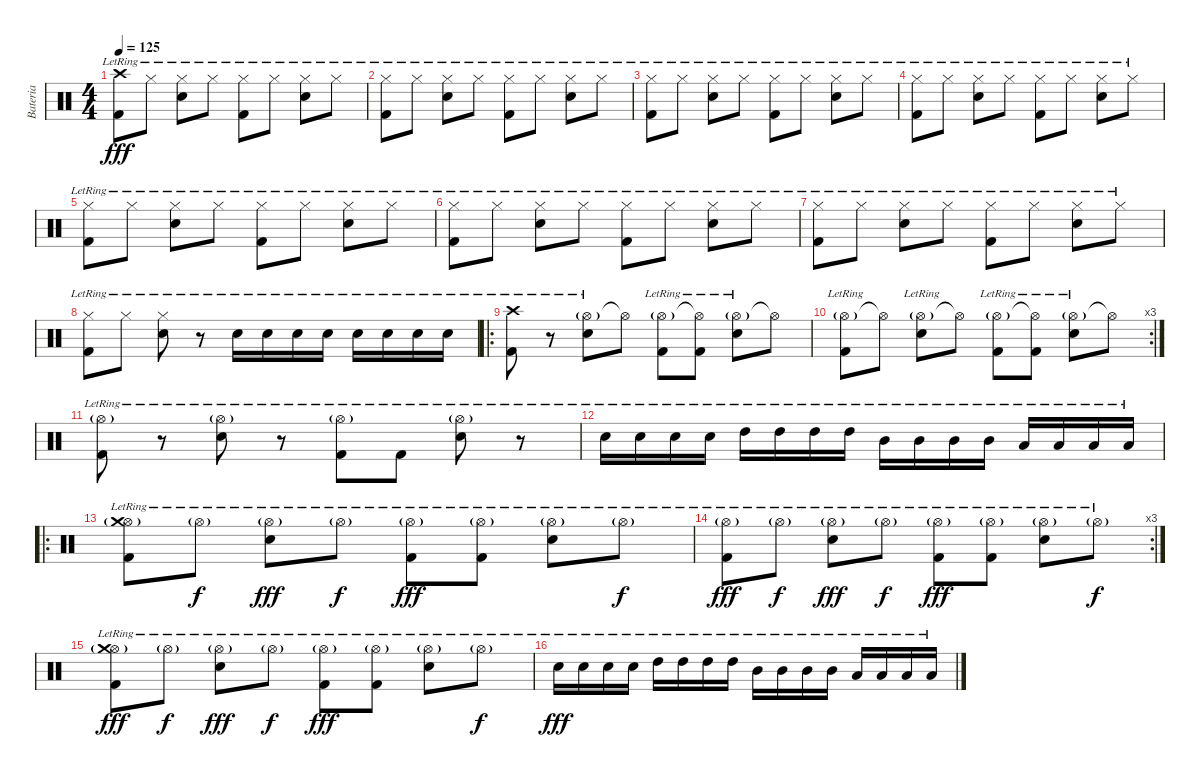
\track ("Bateria" "Bateria") {instrument percussion}
\staff {score}
\articulation defaults
\ts (4 4)
\tempo 125
\clef neutral
\ks c
("Kick (hit) 2"{lr} "Crash high (hit)"{lr}).8{dy fff} "Hi-Hat (closed)"{lr}.8 ("Snare (hit) 2"{lr} "Hi-Hat (closed)"{lr}).8 "Hi-Hat (closed)"{lr}.8 ("Kick (hit) 2"{lr} "Hi-Hat (closed)"{lr}).8 "Hi-Hat (closed)"{lr}.8 ("Snare (hit) 2"{lr} "Hi-Hat (closed)"{lr}).8 "Hi-Hat (closed)"{lr}.8 |
("Kick (hit) 2"{lr} "Hi-Hat (closed)"{lr}).8 "Hi-Hat (closed)"{lr}.8 ("Snare (hit) 2"{lr} "Hi-Hat (closed)"{lr}).8 "Hi-Hat (closed)"{lr}.8 ("Kick (hit) 2"{lr} "Hi-Hat (closed)"{lr}).8 "Hi-Hat (closed)"{lr}.8 ("Snare (hit) 2"{lr} "Hi-Hat (closed)"{lr}).8 "Hi-Hat (closed)"{lr}.8 |
("Kick (hit) 2"{lr} "Hi-Hat (closed)"{lr}).8 "Hi-Hat (closed)"{lr}.8 ("Snare (hit) 2"{lr} "Hi-Hat (closed)"{lr}).8 "Hi-Hat (closed)"{lr}.8 ("Kick (hit) 2"{lr} "Hi-Hat (closed)"{lr}).8 "Hi-Hat (closed)"{lr}.8 ("Snare (hit) 2"{lr} "Hi-Hat (closed)"{lr}).8 "Hi-Hat (closed)"{lr}.8 |
("Kick (hit) 2"{lr} "Hi-Hat (closed)"{lr}).8 "Hi-Hat (closed)"{lr}.8 ("Snare (hit) 2"{lr} "Hi-Hat (closed)"{lr}).8 "Hi-Hat (closed)"{lr}.8 ("Kick (hit) 2"{lr} "Hi-Hat (closed)"{lr}).8 "Hi-Hat (closed)"{lr}.8 ("Snare (hit) 2"{lr} "Hi-Hat (closed)"{lr}).8 "Hi-Hat (closed)"{lr}.8 |
("Kick (hit) 2"{lr} "Hi-Hat (closed)"{lr}).8 "Hi-Hat (closed)"{lr}.8 ("Snare (hit) 2"{lr} "Hi-Hat (closed)"{lr}).8 "Hi-Hat (closed)"{lr}.8 ("Kick (hit) 2"{lr} "Hi-Hat (closed)"{lr}).8 "Hi-Hat (closed)"{lr}.8 ("Snare (hit) 2"{lr} "Hi-Hat (closed)"{lr}).8 "Hi-Hat (closed)"{lr}.8 |
("Kick (hit) 2"{lr} "Hi-Hat (closed)"{lr}).8 "Hi-Hat (closed)"{lr}.8 ("Snare (hit) 2"{lr} "Hi-Hat (closed)"{lr}).8 "Hi-Hat (closed)"{lr}.8 ("Kick (hit) 2"{lr} "Hi-Hat (closed)"{lr}).8 "Hi-Hat (closed)"{lr}.8 ("Snare (hit) 2"{lr} "Hi-Hat (closed)"{lr}).8 "Hi-Hat (closed)"{lr}.8 |
("Kick (hit) 2"{lr} "Hi-Hat (closed)"{lr}).8 "Hi-Hat (closed)"{lr}.8 ("Snare (hit) 2"{lr} "Hi-Hat (closed)"{lr}).8 "Hi-Hat (closed)"{lr}.8 ("Kick (hit) 2"{lr} "Hi-Hat (closed)"{lr}).8 "Hi-Hat (closed)"{lr}.8 ("Snare (hit) 2"{lr} "Hi-Hat (closed)"{lr}).8 "Hi-Hat (closed)"{lr}.8 |
("Hi-Hat (closed)"{lr} "Kick (hit) 2"{lr}).8 "Hi-Hat (closed)"{lr}.8 ("Snare (hit) 2"{lr} "Hi-Hat (closed)"{lr}).8 r.8 "Snare (hit) 2"{lr}.16 "Snare (hit) 2"{lr}.16 "Snare (hit) 2"{lr}.16 "Snare (hit) 2"{lr}.16 "Snare (hit) 2"{lr}.16 "Snare (hit) 2"{lr}.16 "Snare (hit) 2"{lr}.16 "Snare (hit) 2"{lr}.16 |
\ro
("Crash high (hit)"{lr} "Kick (hit) 2"{lr}).8 r.8 ("Hi-Hat (open)"{g lr} "Snare (hit) 2"{lr}).8 "Hi-Hat (open)"{t}.8 ("Hi-Hat (open)"{g lr} "Kick (hit) 2"{lr}).8 ("Hi-Hat (open)"{t} "Kick (hit) 2"{lr}).8 ("Hi-Hat (open)"{g lr} "Snare (hit) 2"{lr}).8 "Hi-Hat (open)"{t}.8 |
\rc 3
("Hi-Hat (open)"{g lr} "Kick (hit) 2"{lr}).8 "Hi-Hat (open)"{t}.8 ("Hi-Hat (open)"{g lr} "Snare (hit) 2"{lr}).8 "Hi-Hat (open)"{t}.8 ("Hi-Hat (open)"{g lr} "Kick (hit) 2"{lr}).8 ("Hi-Hat (open)"{t} "Kick (hit) 2"{lr}).8 ("Hi-Hat (open)"{g lr} "Snare (hit) 2"{lr}).8 "Hi-Hat (open)"{t}.8 |
("Hi-Hat (open)"{g lr} "Kick (hit) 2"{lr}).8 r.8 ("Hi-Hat (open)"{g lr} "Snare (hit) 2"{lr}).8 r.8 ("Hi-Hat (open)"{g lr} "Kick (hit) 2"{lr}).8 "Kick (hit) 2"{lr}.8 ("Hi-Hat (open)"{g lr} "Snare (hit) 2"{lr}).8 r.8 |
"Snare (hit) 2"{lr}.16 "Snare (hit) 2"{lr}.16 "Snare (hit) 2"{lr}.16 "Snare (hit) 2"{lr}.16 "High Tom (hit)"{lr}.16 "High Tom (hit)"{lr}.16 "High Tom (hit)"{lr}.16 "High Tom (hit)"{lr}.16 "Mid Tom (hit)"{lr}.16 "Mid Tom (hit)"{lr}.16 "Mid Tom (hit)"{lr}.16 "Mid Tom (hit)"{lr}.16 "Low Tom (hit)"{lr}.16 "Low Tom (hit)"{lr}.16 "Low Tom (hit)"{lr}.16 "Low Tom (hit)"{lr}.16 |
\ro
("Hi-Hat (open)"{g lr} "Kick (hit) 2"{lr} "Crash medium (hit)"{lr}).8 "Hi-Hat (open)"{g lr}.8{dy f} ("Hi-Hat (open)"{g lr} "Snare (hit) 2"{lr}).8{dy fff} "Hi-Hat (open)"{g lr}.8{dy f} ("Hi-Hat (open)"{g lr} "Kick (hit) 2"{lr}).8{dy fff} ("Hi-Hat (open)"{g lr} "Kick (hit) 2"{lr}).8 ("Hi-Hat (open)"{g lr} "Snare (hit) 2"{lr}).8 "Hi-Hat (open)"{g lr}.8{dy f} |
\rc 3
("Hi-Hat (open)"{g lr} "Kick (hit) 2"{lr}).8{dy fff} "Hi-Hat (open)"{g lr}.8{dy f} ("Hi-Hat (open)"{g lr} "Snare (hit) 2"{lr}).8{dy fff} "Hi-Hat (open)"{g lr}.8{dy f} ("Hi-Hat (open)"{g lr} "Kick (hit) 2"{lr}).8{dy fff} ("Hi-Hat (open)"{g lr} "Kick (hit) 2"{lr}).8 ("Hi-Hat (open)"{g lr} "Snare (hit) 2"{lr}).8 "Hi-Hat (open)"{g lr}.8{dy f} |
("Hi-Hat (open)"{g lr} "Kick (hit) 2"{lr} "Crash medium (hit)"{lr}).8{dy fff} "Hi-Hat (open)"{g lr}.8{dy f} ("Hi-Hat (open)"{g lr} "Snare (hit) 2"{lr}).8{dy fff} "Hi-Hat (open)"{g lr}.8{dy f} ("Hi-Hat (open)"{g lr} "Kick (hit) 2"{lr}).8{dy fff} ("Hi-Hat (open)"{g lr} "Kick (hit) 2"{lr}).8 ("Hi-Hat (open)"{g lr} "Snare (hit) 2"{lr}).8 "Hi-Hat (open)"{g lr}.8{dy f} |
"Snare (hit) 2"{lr}.16{dy fff} "Snare (hit) 2"{lr}.16 "Snare (hit) 2"{lr}.16 "Snare (hit) 2"{lr}.16 "High Tom (hit)"{lr}.16 "High Tom (hit)"{lr}.16 "High Tom (hit)"{lr}.16 "High Tom (hit)"{lr}.16 "Mid Tom (hit)"{lr}.16 "Mid Tom (hit)"{lr}.16 "Mid Tom (hit)"{lr}.16 "Mid Tom (hit)"{lr}.16 "Low Tom (hit)"{lr}.16 "Low Tom (hit)"{lr}.16 "Low Tom (hit)"{lr}.16 "Low Tom (hit)"{lr}.16
